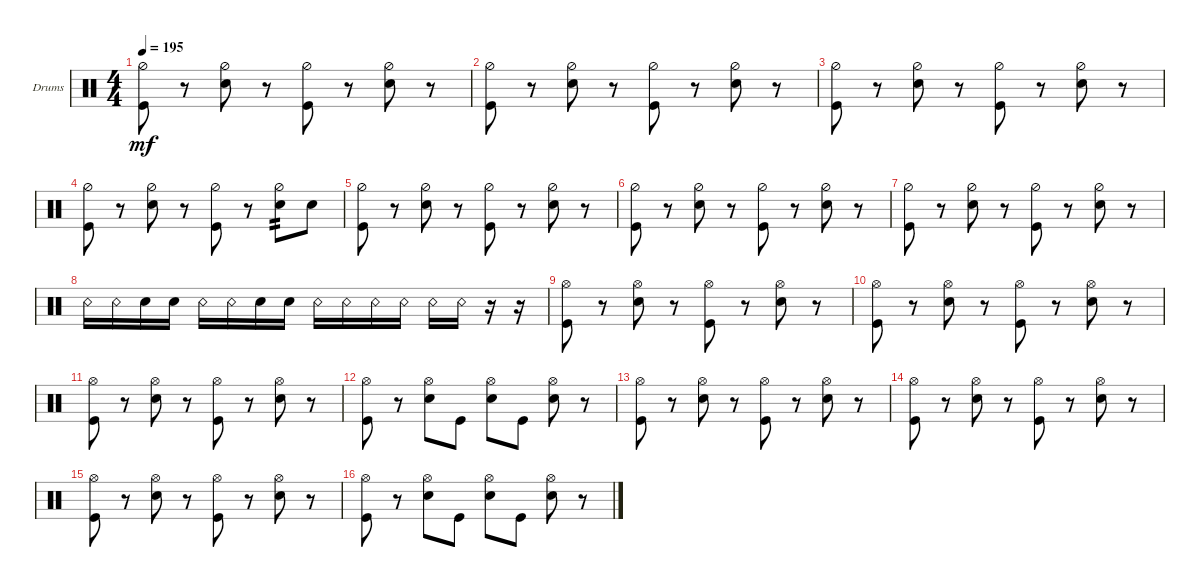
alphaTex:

\defaultSystemsLayout 4
\bracketExtendMode groupsimilarinstruments
\firstSystemTrackNameOrientation horizontal
\otherSystemsTrackNameOrientation horizontal
\track ("Drumkit" "Drums") {instrument percussion}
\staff {score}
\articulation defaults
\ts (4 4)
\tempo 195
\clef neutral
\ks c
("Kick (hit)" "Hi-Hat (half)").8{dy mf} r.8 ("Snare (hit) 2" "Hi-Hat (half)").8 r.8 ("Kick (hit)" "Hi-Hat (half)").8 r.8 ("Snare (hit) 2" "Hi-Hat (half)").8 r.8 |
("Kick (hit)" "Hi-Hat (half)").8 r.8 ("Snare (hit) 2" "Hi-Hat (half)").8 r.8 ("Kick (hit)" "Hi-Hat (half)").8 r.8 ("Snare (hit) 2" "Hi-Hat (half)").8 r.8 |
("Kick (hit)" "Hi-Hat (half)").8 r.8 ("Snare (hit) 2" "Hi-Hat (half)").8 r.8 ("Kick (hit)" "Hi-Hat (half)").8 r.8 ("Snare (hit) 2" "Hi-Hat (half)").8 r.8 |
("Kick (hit)" "Hi-Hat (half)").8 r.8 ("Snare (hit) 2" "Hi-Hat (half)").8 r.8 ("Kick (hit)" "Hi-Hat (half)").8 r.8 ("Snare (hit) 2" "Hi-Hat (half)").8{tp 2} "Snare (hit) 2".8 |
("Kick (hit)" "Hi-Hat (half)").8 r.8 ("Snare (hit) 2" "Hi-Hat (half)").8 r.8 ("Kick (hit)" "Hi-Hat (half)").8 r.8 ("Snare (hit) 2" "Hi-Hat (half)").8 r.8 |
("Kick (hit)" "Hi-Hat (half)").8 r.8 ("Snare (hit) 2" "Hi-Hat (half)").8 r.8 ("Kick (hit)" "Hi-Hat (half)").8 r.8 ("Snare (hit) 2" "Hi-Hat (half)").8 r.8 |
("Kick (hit)" "Hi-Hat (half)").8 r.8 ("Snare (hit) 2" "Hi-Hat (half)").8 r.8 ("Kick (hit)" "Hi-Hat (half)").8 r.8 ("Snare (hit) 2" "Hi-Hat (half)").8 r.8 |
"Snare (rim shot)".16 "Snare (rim shot)".16 "Snare (hit) 2".16 "Snare (hit) 2".16 "Snare (rim shot)".16 "Snare (rim shot)".16 "Snare (hit) 2".16 "Snare (hit) 2".16 "Snare (rim shot)".16 "Snare (rim shot)".16 "Snare (rim shot)".16 "Snare (rim shot)".16 "Snare (rim shot)".16 "Snare (rim shot)".16 r.16 r.16 |
("Kick (hit)" "Hi-Hat (open)").8 r.8 ("Snare (hit) 2" "Hi-Hat (open)").8 r.8 ("Kick (hit)" "Hi-Hat (open)").8 r.8 ("Snare (hit) 2" "Hi-Hat (open)").8 r.8 |
("Kick (hit)" "Hi-Hat (open)").8 r.8 ("Snare (hit) 2" "Hi-Hat (open)").8 r.8 ("Kick (hit)" "Hi-Hat (open)").8 r.8 ("Snare (hit) 2" "Hi-Hat (open)").8 r.8 |
("Kick (hit)" "Hi-Hat (open)").8 r.8 ("Snare (hit) 2" "Hi-Hat (open)").8 r.8 ("Kick (hit)" "Hi-Hat (open)").8 r.8 ("Snare (hit) 2" "Hi-Hat (open)").8 r.8 |
("Kick (hit)" "Hi-Hat (open)").8 r.8 ("Snare (hit) 2" "Hi-Hat (open)").8 "Kick (hit)".8 ("Hi-Hat (open)" "Snare (hit) 2").8 "Kick (hit)".8 ("Snare (hit) 2" "Hi-Hat (open)").8 r.8 |
("Kick (hit)" "Hi-Hat (open)").8 r.8 ("Snare (hit) 2" "Hi-Hat (open)").8 r.8 ("Kick (hit)" "Hi-Hat (open)").8 r.8 ("Snare (hit) 2" "Hi-Hat (open)").8 r.8 |
("Kick (hit)" "Hi-Hat (open)").8 r.8 ("Snare (hit) 2" "Hi-Hat (open)").8 r.8 ("Kick (hit)" "Hi-Hat (open)").8 r.8 ("Snare (hit) 2" "Hi-Hat (open)").8 r.8 |
("Kick (hit)" "Hi-Hat (open)").8 r.8 ("Snare (hit) 2" "Hi-Hat (open)").8 r.8 ("Kick (hit)" "Hi-Hat (open)").8 r.8 ("Snare (hit) 2" "Hi-Hat (open)").8 r.8 |
("Kick (hit)" "Hi-Hat (open)").8 r.8 ("Snare (hit) 2" "Hi-Hat (open)").8 "Kick (hit)".8 ("Hi-Hat (open)" "Snare (hit) 2").8 "Kick (hit)".8 ("Snare (hit) 2" "Hi-Hat (open)").8 r.8
